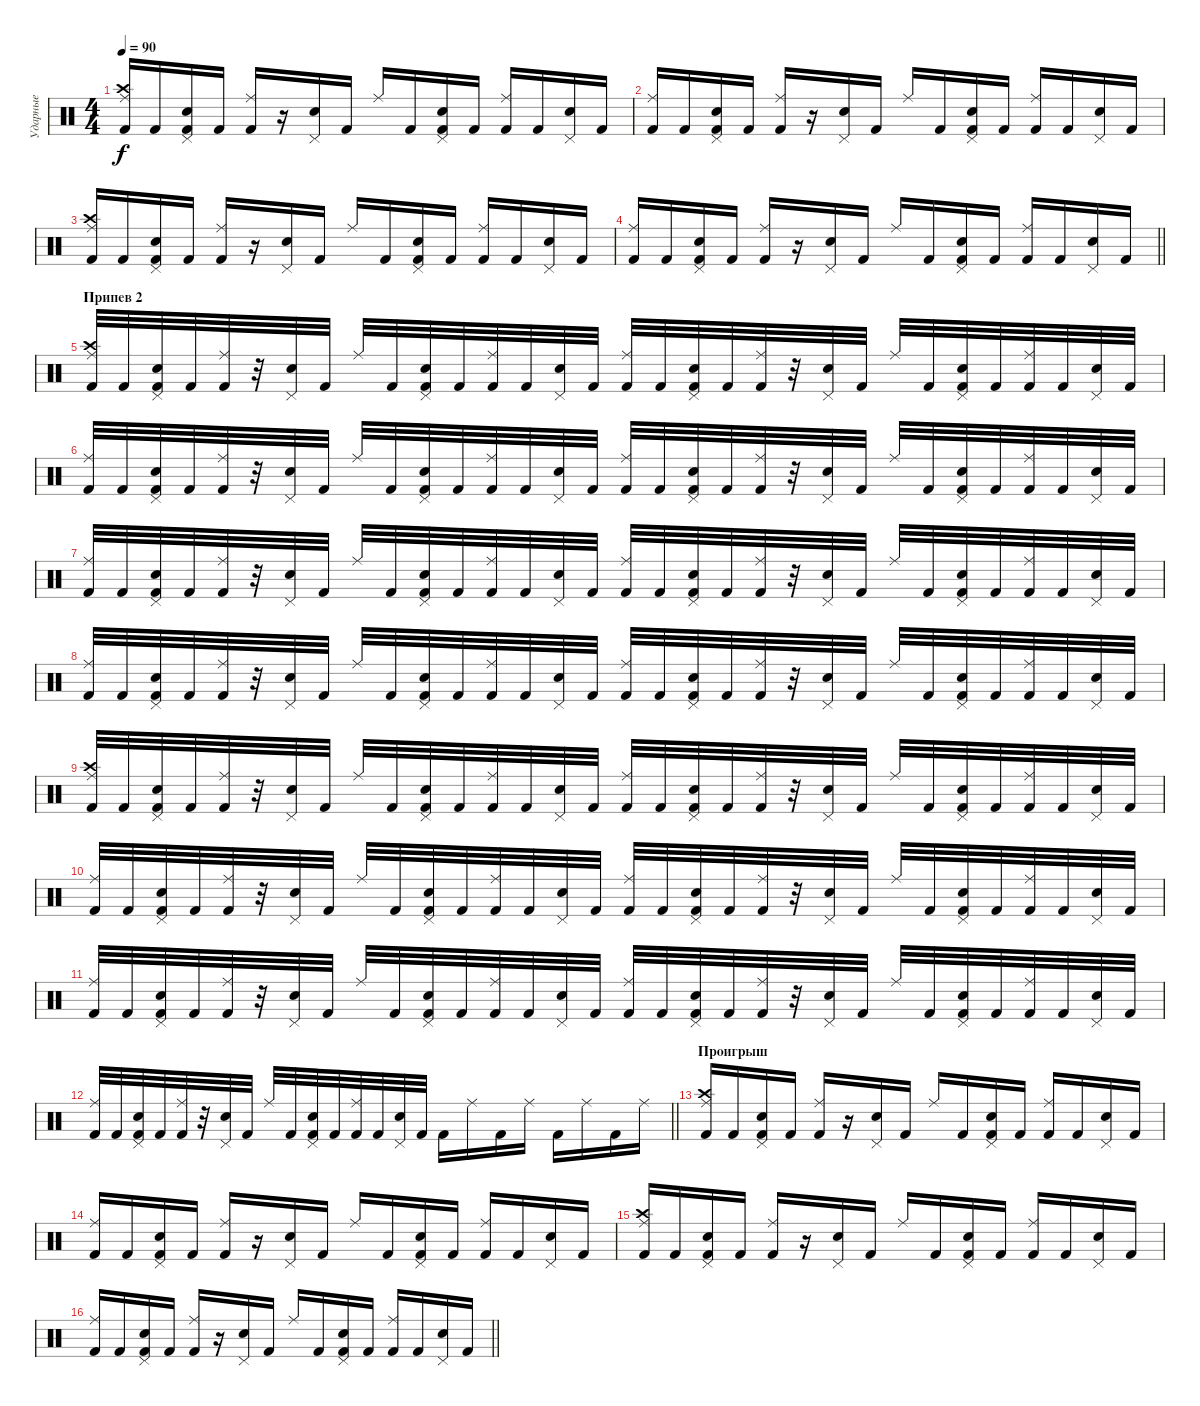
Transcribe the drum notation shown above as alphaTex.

\track ("Ударные" "Ударные") {instrument percussion}
\staff {score}
\articulation defaults
\ts (4 4)
\tempo 90
\clef neutral
\ks c
("Kick (hit) 2" "Crash high (hit)" "Ride (middle)").16{dy f} "Kick (hit) 2".16 ("Kick (hit) 2" "Snare (hit) 2" "Pedal Hi-Hat (hit)").16 "Kick (hit) 2".16 ("Kick (hit) 2" "Ride (middle)").16 r.16 ("Snare (hit) 2" "Pedal Hi-Hat (hit)").16 "Kick (hit) 2".16 "Ride (middle)".16 "Kick (hit) 2".16 ("Kick (hit) 2" "Snare (hit) 2" "Pedal Hi-Hat (hit)").16 "Kick (hit) 2".16 ("Kick (hit) 2" "Ride (middle)").16 "Kick (hit) 2".16 ("Snare (hit) 2" "Pedal Hi-Hat (hit)").16 "Kick (hit) 2".16 |
("Kick (hit) 2" "Ride (middle)").16 "Kick (hit) 2".16 ("Kick (hit) 2" "Snare (hit) 2" "Pedal Hi-Hat (hit)").16 "Kick (hit) 2".16 ("Kick (hit) 2" "Ride (middle)").16 r.16 ("Snare (hit) 2" "Pedal Hi-Hat (hit)").16 "Kick (hit) 2".16 "Ride (middle)".16 "Kick (hit) 2".16 ("Kick (hit) 2" "Snare (hit) 2" "Pedal Hi-Hat (hit)").16 "Kick (hit) 2".16 ("Kick (hit) 2" "Ride (middle)").16 "Kick (hit) 2".16 ("Snare (hit) 2" "Pedal Hi-Hat (hit)").16 "Kick (hit) 2".16 |
("Kick (hit) 2" "Crash high (hit)" "Ride (middle)").16 "Kick (hit) 2".16 ("Kick (hit) 2" "Snare (hit) 2" "Pedal Hi-Hat (hit)").16 "Kick (hit) 2".16 ("Kick (hit) 2" "Ride (middle)").16 r.16 ("Snare (hit) 2" "Pedal Hi-Hat (hit)").16 "Kick (hit) 2".16 "Ride (middle)".16 "Kick (hit) 2".16 ("Kick (hit) 2" "Snare (hit) 2" "Pedal Hi-Hat (hit)").16 "Kick (hit) 2".16 ("Kick (hit) 2" "Ride (middle)").16 "Kick (hit) 2".16 ("Snare (hit) 2" "Pedal Hi-Hat (hit)").16 "Kick (hit) 2".16 |
\barLineRight lightlight
("Kick (hit) 2" "Ride (middle)").16 "Kick (hit) 2".16 ("Kick (hit) 2" "Snare (hit) 2" "Pedal Hi-Hat (hit)").16 "Kick (hit) 2".16 ("Kick (hit) 2" "Ride (middle)").16 r.16 ("Snare (hit) 2" "Pedal Hi-Hat (hit)").16 "Kick (hit) 2".16 "Ride (middle)".16 "Kick (hit) 2".16 ("Kick (hit) 2" "Snare (hit) 2" "Pedal Hi-Hat (hit)").16 "Kick (hit) 2".16 ("Kick (hit) 2" "Ride (middle)").16 "Kick (hit) 2".16 ("Snare (hit) 2" "Pedal Hi-Hat (hit)").16 "Kick (hit) 2".16 |
\section ("" "Припев 2")
("Kick (hit) 2" "Crash high (hit)" "Ride (middle)").32 "Kick (hit) 2".32 ("Kick (hit) 2" "Snare (hit) 2" "Pedal Hi-Hat (hit)").32 "Kick (hit) 2".32 ("Kick (hit) 2" "Ride (middle)").32 r.32 ("Snare (hit) 2" "Pedal Hi-Hat (hit)").32 "Kick (hit) 2".32 "Ride (middle)".32 "Kick (hit) 2".32 ("Kick (hit) 2" "Snare (hit) 2" "Pedal Hi-Hat (hit)").32 "Kick (hit) 2".32 ("Kick (hit) 2" "Ride (middle)").32 "Kick (hit) 2".32 ("Snare (hit) 2" "Pedal Hi-Hat (hit)").32 "Kick (hit) 2".32 ("Kick (hit) 2" "Ride (middle)").32 "Kick (hit) 2".32 ("Kick (hit) 2" "Snare (hit) 2" "Pedal Hi-Hat (hit)").32 "Kick (hit) 2".32 ("Kick (hit) 2" "Ride (middle)").32 r.32 ("Snare (hit) 2" "Pedal Hi-Hat (hit)").32 "Kick (hit) 2".32 "Ride (middle)".32 "Kick (hit) 2".32 ("Kick (hit) 2" "Snare (hit) 2" "Pedal Hi-Hat (hit)").32 "Kick (hit) 2".32 ("Kick (hit) 2" "Ride (middle)").32 "Kick (hit) 2".32 ("Snare (hit) 2" "Pedal Hi-Hat (hit)").32 "Kick (hit) 2".32 |
("Kick (hit) 2" "Ride (middle)").32 "Kick (hit) 2".32 ("Kick (hit) 2" "Snare (hit) 2" "Pedal Hi-Hat (hit)").32 "Kick (hit) 2".32 ("Kick (hit) 2" "Ride (middle)").32 r.32 ("Snare (hit) 2" "Pedal Hi-Hat (hit)").32 "Kick (hit) 2".32 "Ride (middle)".32 "Kick (hit) 2".32 ("Kick (hit) 2" "Snare (hit) 2" "Pedal Hi-Hat (hit)").32 "Kick (hit) 2".32 ("Kick (hit) 2" "Ride (middle)").32 "Kick (hit) 2".32 ("Snare (hit) 2" "Pedal Hi-Hat (hit)").32 "Kick (hit) 2".32 ("Kick (hit) 2" "Ride (middle)").32 "Kick (hit) 2".32 ("Kick (hit) 2" "Snare (hit) 2" "Pedal Hi-Hat (hit)").32 "Kick (hit) 2".32 ("Kick (hit) 2" "Ride (middle)").32 r.32 ("Snare (hit) 2" "Pedal Hi-Hat (hit)").32 "Kick (hit) 2".32 "Ride (middle)".32 "Kick (hit) 2".32 ("Kick (hit) 2" "Snare (hit) 2" "Pedal Hi-Hat (hit)").32 "Kick (hit) 2".32 ("Kick (hit) 2" "Ride (middle)").32 "Kick (hit) 2".32 ("Snare (hit) 2" "Pedal Hi-Hat (hit)").32 "Kick (hit) 2".32 |
("Kick (hit) 2" "Ride (middle)").32 "Kick (hit) 2".32 ("Kick (hit) 2" "Snare (hit) 2" "Pedal Hi-Hat (hit)").32 "Kick (hit) 2".32 ("Kick (hit) 2" "Ride (middle)").32 r.32 ("Snare (hit) 2" "Pedal Hi-Hat (hit)").32 "Kick (hit) 2".32 "Ride (middle)".32 "Kick (hit) 2".32 ("Kick (hit) 2" "Snare (hit) 2" "Pedal Hi-Hat (hit)").32 "Kick (hit) 2".32 ("Kick (hit) 2" "Ride (middle)").32 "Kick (hit) 2".32 ("Snare (hit) 2" "Pedal Hi-Hat (hit)").32 "Kick (hit) 2".32 ("Kick (hit) 2" "Ride (middle)").32 "Kick (hit) 2".32 ("Kick (hit) 2" "Snare (hit) 2" "Pedal Hi-Hat (hit)").32 "Kick (hit) 2".32 ("Kick (hit) 2" "Ride (middle)").32 r.32 ("Snare (hit) 2" "Pedal Hi-Hat (hit)").32 "Kick (hit) 2".32 "Ride (middle)".32 "Kick (hit) 2".32 ("Kick (hit) 2" "Snare (hit) 2" "Pedal Hi-Hat (hit)").32 "Kick (hit) 2".32 ("Kick (hit) 2" "Ride (middle)").32 "Kick (hit) 2".32 ("Snare (hit) 2" "Pedal Hi-Hat (hit)").32 "Kick (hit) 2".32 |
("Kick (hit) 2" "Ride (middle)").32 "Kick (hit) 2".32 ("Kick (hit) 2" "Snare (hit) 2" "Pedal Hi-Hat (hit)").32 "Kick (hit) 2".32 ("Kick (hit) 2" "Ride (middle)").32 r.32 ("Snare (hit) 2" "Pedal Hi-Hat (hit)").32 "Kick (hit) 2".32 "Ride (middle)".32 "Kick (hit) 2".32 ("Kick (hit) 2" "Snare (hit) 2" "Pedal Hi-Hat (hit)").32 "Kick (hit) 2".32 ("Kick (hit) 2" "Ride (middle)").32 "Kick (hit) 2".32 ("Snare (hit) 2" "Pedal Hi-Hat (hit)").32 "Kick (hit) 2".32 ("Kick (hit) 2" "Ride (middle)").32 "Kick (hit) 2".32 ("Kick (hit) 2" "Snare (hit) 2" "Pedal Hi-Hat (hit)").32 "Kick (hit) 2".32 ("Kick (hit) 2" "Ride (middle)").32 r.32 ("Snare (hit) 2" "Pedal Hi-Hat (hit)").32 "Kick (hit) 2".32 "Ride (middle)".32 "Kick (hit) 2".32 ("Kick (hit) 2" "Snare (hit) 2" "Pedal Hi-Hat (hit)").32 "Kick (hit) 2".32 ("Kick (hit) 2" "Ride (middle)").32 "Kick (hit) 2".32 ("Snare (hit) 2" "Pedal Hi-Hat (hit)").32 "Kick (hit) 2".32 |
("Kick (hit) 2" "Crash high (hit)" "Ride (middle)").32 "Kick (hit) 2".32 ("Kick (hit) 2" "Snare (hit) 2" "Pedal Hi-Hat (hit)").32 "Kick (hit) 2".32 ("Kick (hit) 2" "Ride (middle)").32 r.32 ("Snare (hit) 2" "Pedal Hi-Hat (hit)").32 "Kick (hit) 2".32 "Ride (middle)".32 "Kick (hit) 2".32 ("Kick (hit) 2" "Snare (hit) 2" "Pedal Hi-Hat (hit)").32 "Kick (hit) 2".32 ("Kick (hit) 2" "Ride (middle)").32 "Kick (hit) 2".32 ("Snare (hit) 2" "Pedal Hi-Hat (hit)").32 "Kick (hit) 2".32 ("Kick (hit) 2" "Ride (middle)").32 "Kick (hit) 2".32 ("Kick (hit) 2" "Snare (hit) 2" "Pedal Hi-Hat (hit)").32 "Kick (hit) 2".32 ("Kick (hit) 2" "Ride (middle)").32 r.32 ("Snare (hit) 2" "Pedal Hi-Hat (hit)").32 "Kick (hit) 2".32 "Ride (middle)".32 "Kick (hit) 2".32 ("Kick (hit) 2" "Snare (hit) 2" "Pedal Hi-Hat (hit)").32 "Kick (hit) 2".32 ("Kick (hit) 2" "Ride (middle)").32 "Kick (hit) 2".32 ("Snare (hit) 2" "Pedal Hi-Hat (hit)").32 "Kick (hit) 2".32 |
("Kick (hit) 2" "Ride (middle)").32 "Kick (hit) 2".32 ("Kick (hit) 2" "Snare (hit) 2" "Pedal Hi-Hat (hit)").32 "Kick (hit) 2".32 ("Kick (hit) 2" "Ride (middle)").32 r.32 ("Snare (hit) 2" "Pedal Hi-Hat (hit)").32 "Kick (hit) 2".32 "Ride (middle)".32 "Kick (hit) 2".32 ("Kick (hit) 2" "Snare (hit) 2" "Pedal Hi-Hat (hit)").32 "Kick (hit) 2".32 ("Kick (hit) 2" "Ride (middle)").32 "Kick (hit) 2".32 ("Snare (hit) 2" "Pedal Hi-Hat (hit)").32 "Kick (hit) 2".32 ("Kick (hit) 2" "Ride (middle)").32 "Kick (hit) 2".32 ("Kick (hit) 2" "Snare (hit) 2" "Pedal Hi-Hat (hit)").32 "Kick (hit) 2".32 ("Kick (hit) 2" "Ride (middle)").32 r.32 ("Snare (hit) 2" "Pedal Hi-Hat (hit)").32 "Kick (hit) 2".32 "Ride (middle)".32 "Kick (hit) 2".32 ("Kick (hit) 2" "Snare (hit) 2" "Pedal Hi-Hat (hit)").32 "Kick (hit) 2".32 ("Kick (hit) 2" "Ride (middle)").32 "Kick (hit) 2".32 ("Snare (hit) 2" "Pedal Hi-Hat (hit)").32 "Kick (hit) 2".32 |
("Kick (hit) 2" "Ride (middle)").32 "Kick (hit) 2".32 ("Kick (hit) 2" "Snare (hit) 2" "Pedal Hi-Hat (hit)").32 "Kick (hit) 2".32 ("Kick (hit) 2" "Ride (middle)").32 r.32 ("Snare (hit) 2" "Pedal Hi-Hat (hit)").32 "Kick (hit) 2".32 "Ride (middle)".32 "Kick (hit) 2".32 ("Kick (hit) 2" "Snare (hit) 2" "Pedal Hi-Hat (hit)").32 "Kick (hit) 2".32 ("Kick (hit) 2" "Ride (middle)").32 "Kick (hit) 2".32 ("Snare (hit) 2" "Pedal Hi-Hat (hit)").32 "Kick (hit) 2".32 ("Kick (hit) 2" "Ride (middle)").32 "Kick (hit) 2".32 ("Kick (hit) 2" "Snare (hit) 2" "Pedal Hi-Hat (hit)").32 "Kick (hit) 2".32 ("Kick (hit) 2" "Ride (middle)").32 r.32 ("Snare (hit) 2" "Pedal Hi-Hat (hit)").32 "Kick (hit) 2".32 "Ride (middle)".32 "Kick (hit) 2".32 ("Kick (hit) 2" "Snare (hit) 2" "Pedal Hi-Hat (hit)").32 "Kick (hit) 2".32 ("Kick (hit) 2" "Ride (middle)").32 "Kick (hit) 2".32 ("Snare (hit) 2" "Pedal Hi-Hat (hit)").32 "Kick (hit) 2".32 |
\barLineRight lightlight
("Kick (hit) 2" "Ride (middle)").32 "Kick (hit) 2".32 ("Kick (hit) 2" "Snare (hit) 2" "Pedal Hi-Hat (hit)").32 "Kick (hit) 2".32 ("Kick (hit) 2" "Ride (middle)").32 r.32 ("Snare (hit) 2" "Pedal Hi-Hat (hit)").32 "Kick (hit) 2".32 "Ride (middle)".32 "Kick (hit) 2".32 ("Kick (hit) 2" "Snare (hit) 2" "Pedal Hi-Hat (hit)").32 "Kick (hit) 2".32 ("Kick (hit) 2" "Ride (middle)").32 "Kick (hit) 2".32 ("Snare (hit) 2" "Pedal Hi-Hat (hit)").32 "Kick (hit) 2".32 "Kick (hit) 2".16 "Ride (middle)".16 "Kick (hit) 2".16 "Ride (middle)".16 "Kick (hit) 2".16 "Ride (middle)".16 "Kick (hit) 2".16 "Ride (middle)".16 |
\section ("" "Проигрыш")
("Kick (hit) 2" "Crash high (hit)" "Ride (middle)").16 "Kick (hit) 2".16 ("Kick (hit) 2" "Snare (hit) 2" "Pedal Hi-Hat (hit)").16 "Kick (hit) 2".16 ("Kick (hit) 2" "Ride (middle)").16 r.16 ("Snare (hit) 2" "Pedal Hi-Hat (hit)").16 "Kick (hit) 2".16 "Ride (middle)".16 "Kick (hit) 2".16 ("Kick (hit) 2" "Snare (hit) 2" "Pedal Hi-Hat (hit)").16 "Kick (hit) 2".16 ("Kick (hit) 2" "Ride (middle)").16 "Kick (hit) 2".16 ("Snare (hit) 2" "Pedal Hi-Hat (hit)").16 "Kick (hit) 2".16 |
("Kick (hit) 2" "Ride (middle)").16 "Kick (hit) 2".16 ("Kick (hit) 2" "Snare (hit) 2" "Pedal Hi-Hat (hit)").16 "Kick (hit) 2".16 ("Kick (hit) 2" "Ride (middle)").16 r.16 ("Snare (hit) 2" "Pedal Hi-Hat (hit)").16 "Kick (hit) 2".16 "Ride (middle)".16 "Kick (hit) 2".16 ("Kick (hit) 2" "Snare (hit) 2" "Pedal Hi-Hat (hit)").16 "Kick (hit) 2".16 ("Kick (hit) 2" "Ride (middle)").16 "Kick (hit) 2".16 ("Snare (hit) 2" "Pedal Hi-Hat (hit)").16 "Kick (hit) 2".16 |
("Kick (hit) 2" "Crash high (hit)" "Ride (middle)").16 "Kick (hit) 2".16 ("Kick (hit) 2" "Snare (hit) 2" "Pedal Hi-Hat (hit)").16 "Kick (hit) 2".16 ("Kick (hit) 2" "Ride (middle)").16 r.16 ("Snare (hit) 2" "Pedal Hi-Hat (hit)").16 "Kick (hit) 2".16 "Ride (middle)".16 "Kick (hit) 2".16 ("Kick (hit) 2" "Snare (hit) 2" "Pedal Hi-Hat (hit)").16 "Kick (hit) 2".16 ("Kick (hit) 2" "Ride (middle)").16 "Kick (hit) 2".16 ("Snare (hit) 2" "Pedal Hi-Hat (hit)").16 "Kick (hit) 2".16 |
\barLineRight lightlight
("Kick (hit) 2" "Ride (middle)").16 "Kick (hit) 2".16 ("Kick (hit) 2" "Snare (hit) 2" "Pedal Hi-Hat (hit)").16 "Kick (hit) 2".16 ("Kick (hit) 2" "Ride (middle)").16 r.16 ("Snare (hit) 2" "Pedal Hi-Hat (hit)").16 "Kick (hit) 2".16 "Ride (middle)".16 "Kick (hit) 2".16 ("Kick (hit) 2" "Snare (hit) 2" "Pedal Hi-Hat (hit)").16 "Kick (hit) 2".16 ("Kick (hit) 2" "Ride (middle)").16 "Kick (hit) 2".16 ("Snare (hit) 2" "Pedal Hi-Hat (hit)").16 "Kick (hit) 2".16
